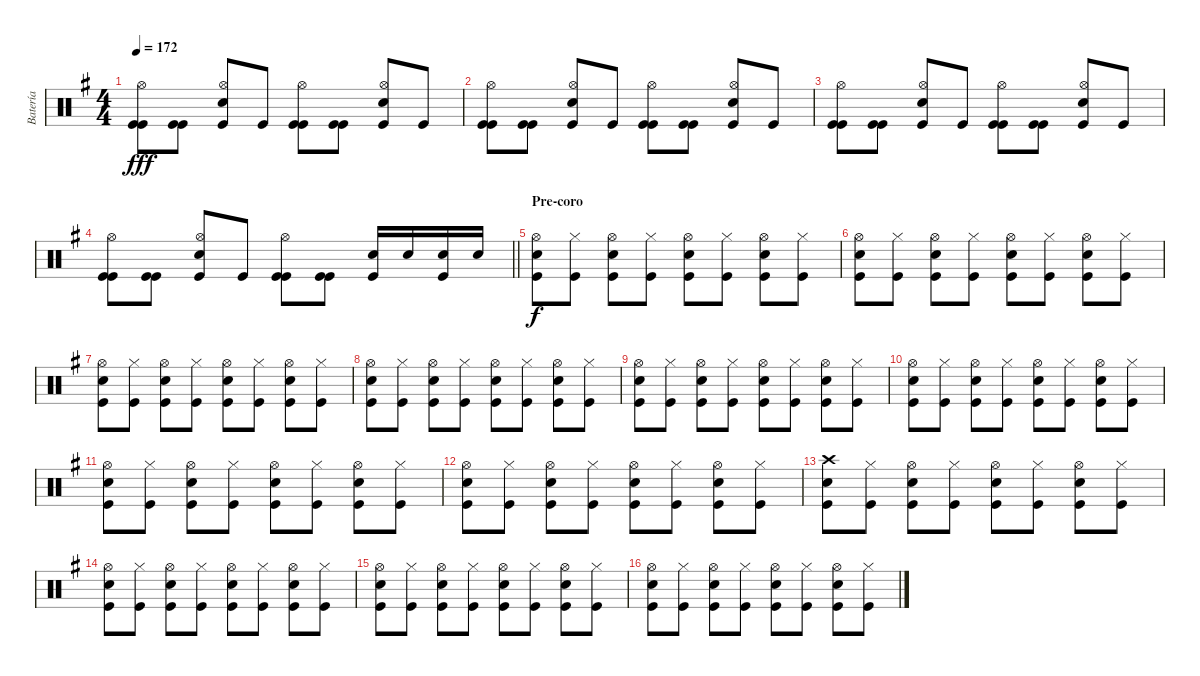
\track ("Batería" "Batería") {instrument percussion}
\staff {score}
\articulation defaults
\ts (4 4)
\tempo 172
\clef neutral
\ks eminor
("Kick (hit)" "Kick (hit)" "Hi-Hat (open)").8{dy fff} ("Kick (hit)" "Kick (hit)").8 ("Kick (hit)" "Electric Snare (hit)" "Hi-Hat (open)").8 "Kick (hit)".8 ("Kick (hit)" "Kick (hit)" "Hi-Hat (open)").8 ("Kick (hit)" "Kick (hit)").8 ("Kick (hit)" "Electric Snare (hit)" "Hi-Hat (open)").8 "Kick (hit)".8 |
("Kick (hit)" "Kick (hit)" "Hi-Hat (open)").8 ("Kick (hit)" "Kick (hit)").8 ("Kick (hit)" "Electric Snare (hit)" "Hi-Hat (open)").8 "Kick (hit)".8 ("Kick (hit)" "Kick (hit)" "Hi-Hat (open)").8 ("Kick (hit)" "Kick (hit)").8 ("Kick (hit)" "Electric Snare (hit)" "Hi-Hat (open)").8 "Kick (hit)".8 |
("Kick (hit)" "Kick (hit)" "Hi-Hat (open)").8 ("Kick (hit)" "Kick (hit)").8 ("Kick (hit)" "Electric Snare (hit)" "Hi-Hat (open)").8 "Kick (hit)".8 ("Kick (hit)" "Kick (hit)" "Hi-Hat (open)").8 ("Kick (hit)" "Kick (hit)").8 ("Kick (hit)" "Electric Snare (hit)" "Hi-Hat (open)").8 "Kick (hit)".8 |
\barLineRight lightlight
("Kick (hit)" "Kick (hit)" "Hi-Hat (open)").8 ("Kick (hit)" "Kick (hit)").8 ("Kick (hit)" "Electric Snare (hit)" "Hi-Hat (open)").8 "Kick (hit)".8 ("Kick (hit)" "Kick (hit)" "Hi-Hat (open)").8 ("Kick (hit)" "Kick (hit)").8 ("Electric Snare (hit)" "Kick (hit)").16 "Electric Snare (hit)".16 ("Electric Snare (hit)" "Kick (hit)").16 "Electric Snare (hit)".16 |
\section ("" "Pre-coro")
("Kick (hit)" "Electric Snare (hit)" "Hi-Hat (open)").8{dy f} ("Kick (hit)" "Hi-Hat (closed)").8 ("Kick (hit)" "Electric Snare (hit)" "Hi-Hat (open)").8 ("Kick (hit)" "Hi-Hat (closed)").8 ("Kick (hit)" "Electric Snare (hit)" "Hi-Hat (open)").8 ("Kick (hit)" "Hi-Hat (closed)").8 ("Kick (hit)" "Electric Snare (hit)" "Hi-Hat (open)").8 ("Kick (hit)" "Hi-Hat (closed)").8 |
("Kick (hit)" "Electric Snare (hit)" "Hi-Hat (open)").8 ("Kick (hit)" "Hi-Hat (closed)").8 ("Kick (hit)" "Electric Snare (hit)" "Hi-Hat (open)").8 ("Kick (hit)" "Hi-Hat (closed)").8 ("Kick (hit)" "Electric Snare (hit)" "Hi-Hat (open)").8 ("Kick (hit)" "Hi-Hat (closed)").8 ("Kick (hit)" "Electric Snare (hit)" "Hi-Hat (open)").8 ("Kick (hit)" "Hi-Hat (closed)").8 |
("Kick (hit)" "Electric Snare (hit)" "Hi-Hat (open)").8 ("Kick (hit)" "Hi-Hat (closed)").8 ("Kick (hit)" "Electric Snare (hit)" "Hi-Hat (open)").8 ("Kick (hit)" "Hi-Hat (closed)").8 ("Kick (hit)" "Electric Snare (hit)" "Hi-Hat (open)").8 ("Kick (hit)" "Hi-Hat (closed)").8 ("Kick (hit)" "Electric Snare (hit)" "Hi-Hat (open)").8 ("Kick (hit)" "Hi-Hat (closed)").8 |
("Kick (hit)" "Electric Snare (hit)" "Hi-Hat (open)").8 ("Kick (hit)" "Hi-Hat (closed)").8 ("Kick (hit)" "Electric Snare (hit)" "Hi-Hat (open)").8 ("Kick (hit)" "Hi-Hat (closed)").8 ("Kick (hit)" "Electric Snare (hit)" "Hi-Hat (open)").8 ("Kick (hit)" "Hi-Hat (closed)").8 ("Kick (hit)" "Electric Snare (hit)" "Hi-Hat (open)").8 ("Kick (hit)" "Hi-Hat (closed)").8 |
("Kick (hit)" "Electric Snare (hit)" "Hi-Hat (open)").8 ("Kick (hit)" "Hi-Hat (closed)").8 ("Kick (hit)" "Electric Snare (hit)" "Hi-Hat (open)").8 ("Kick (hit)" "Hi-Hat (closed)").8 ("Kick (hit)" "Electric Snare (hit)" "Hi-Hat (open)").8 ("Kick (hit)" "Hi-Hat (closed)").8 ("Kick (hit)" "Electric Snare (hit)" "Hi-Hat (open)").8 ("Kick (hit)" "Hi-Hat (closed)").8 |
("Kick (hit)" "Electric Snare (hit)" "Hi-Hat (open)").8 ("Kick (hit)" "Hi-Hat (closed)").8 ("Kick (hit)" "Electric Snare (hit)" "Hi-Hat (open)").8 ("Kick (hit)" "Hi-Hat (closed)").8 ("Kick (hit)" "Electric Snare (hit)" "Hi-Hat (open)").8 ("Kick (hit)" "Hi-Hat (closed)").8 ("Kick (hit)" "Electric Snare (hit)" "Hi-Hat (open)").8 ("Kick (hit)" "Hi-Hat (closed)").8 |
("Kick (hit)" "Electric Snare (hit)" "Hi-Hat (open)").8 ("Kick (hit)" "Hi-Hat (closed)").8 ("Kick (hit)" "Electric Snare (hit)" "Hi-Hat (open)").8 ("Kick (hit)" "Hi-Hat (closed)").8 ("Kick (hit)" "Electric Snare (hit)" "Hi-Hat (open)").8 ("Kick (hit)" "Hi-Hat (closed)").8 ("Kick (hit)" "Electric Snare (hit)" "Hi-Hat (open)").8 ("Kick (hit)" "Hi-Hat (closed)").8 |
("Kick (hit)" "Electric Snare (hit)" "Hi-Hat (open)").8 ("Kick (hit)" "Hi-Hat (closed)").8 ("Kick (hit)" "Electric Snare (hit)" "Hi-Hat (open)").8 ("Kick (hit)" "Hi-Hat (closed)").8 ("Kick (hit)" "Electric Snare (hit)" "Hi-Hat (open)").8 ("Kick (hit)" "Hi-Hat (closed)").8 ("Kick (hit)" "Electric Snare (hit)" "Hi-Hat (open)").8 ("Kick (hit)" "Hi-Hat (closed)").8 |
("Kick (hit)" "Electric Snare (hit)" "Crash high (hit)").8 ("Kick (hit)" "Hi-Hat (closed)").8 ("Kick (hit)" "Electric Snare (hit)" "Hi-Hat (open)").8 ("Kick (hit)" "Hi-Hat (closed)").8 ("Kick (hit)" "Electric Snare (hit)" "Hi-Hat (open)").8 ("Kick (hit)" "Hi-Hat (closed)").8 ("Kick (hit)" "Electric Snare (hit)" "Hi-Hat (open)").8 ("Kick (hit)" "Hi-Hat (closed)").8 |
("Kick (hit)" "Electric Snare (hit)" "Hi-Hat (open)").8 ("Kick (hit)" "Hi-Hat (closed)").8 ("Kick (hit)" "Electric Snare (hit)" "Hi-Hat (open)").8 ("Kick (hit)" "Hi-Hat (closed)").8 ("Kick (hit)" "Electric Snare (hit)" "Hi-Hat (open)").8 ("Kick (hit)" "Hi-Hat (closed)").8 ("Kick (hit)" "Electric Snare (hit)" "Hi-Hat (open)").8 ("Kick (hit)" "Hi-Hat (closed)").8 |
("Kick (hit)" "Electric Snare (hit)" "Hi-Hat (open)").8 ("Kick (hit)" "Hi-Hat (closed)").8 ("Kick (hit)" "Electric Snare (hit)" "Hi-Hat (open)").8 ("Kick (hit)" "Hi-Hat (closed)").8 ("Kick (hit)" "Electric Snare (hit)" "Hi-Hat (open)").8 ("Kick (hit)" "Hi-Hat (closed)").8 ("Kick (hit)" "Electric Snare (hit)" "Hi-Hat (open)").8 ("Kick (hit)" "Hi-Hat (closed)").8 |
("Kick (hit)" "Electric Snare (hit)" "Hi-Hat (open)").8 ("Kick (hit)" "Hi-Hat (closed)").8 ("Kick (hit)" "Electric Snare (hit)" "Hi-Hat (open)").8 ("Kick (hit)" "Hi-Hat (closed)").8 ("Kick (hit)" "Electric Snare (hit)" "Hi-Hat (open)").8 ("Kick (hit)" "Hi-Hat (closed)").8 ("Kick (hit)" "Electric Snare (hit)" "Hi-Hat (open)").8 ("Kick (hit)" "Hi-Hat (closed)").8
